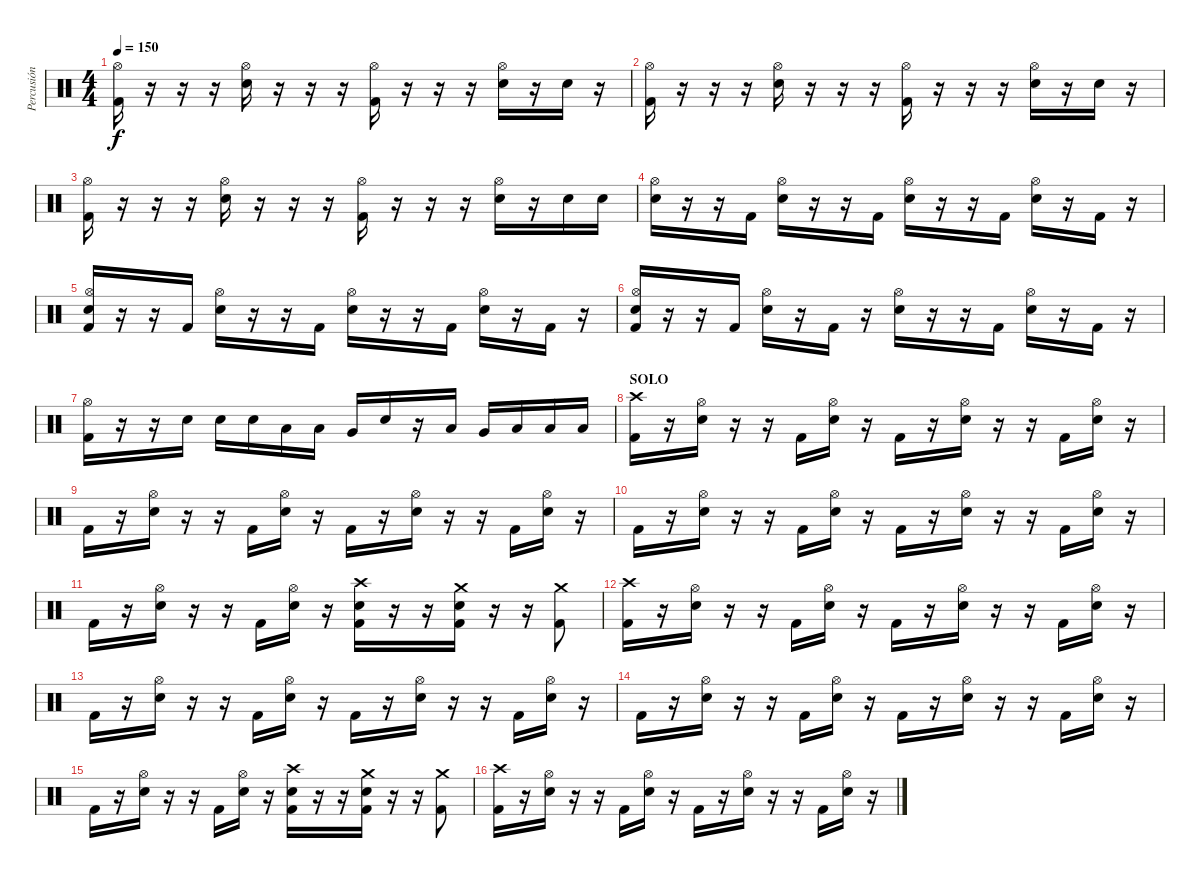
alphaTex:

\track ("Percusión" "Percusión") {instrument percussion}
\staff {score}
\articulation defaults
\ts (4 4)
\tempo 150
\clef neutral
\ks c
("Kick (hit) 2" "Hi-Hat (open)").16{dy f} r.16 r.16 r.16 ("Electric Snare (hit)" "Hi-Hat (open)").16 r.16 r.16 r.16 ("Kick (hit) 2" "Hi-Hat (open)").16 r.16 r.16 r.16 ("Electric Snare (hit)" "Hi-Hat (open)").16 r.16 "Electric Snare (hit)".16 r.16 |
("Kick (hit) 2" "Hi-Hat (open)").16 r.16 r.16 r.16 ("Electric Snare (hit)" "Hi-Hat (open)").16 r.16 r.16 r.16 ("Kick (hit) 2" "Hi-Hat (open)").16 r.16 r.16 r.16 ("Electric Snare (hit)" "Hi-Hat (open)").16 r.16 "Electric Snare (hit)".16 r.16 |
("Kick (hit) 2" "Hi-Hat (open)").16 r.16 r.16 r.16 ("Electric Snare (hit)" "Hi-Hat (open)").16 r.16 r.16 r.16 ("Kick (hit) 2" "Hi-Hat (open)").16 r.16 r.16 r.16 ("Electric Snare (hit)" "Hi-Hat (open)").16 r.16 "Electric Snare (hit)".16 "Electric Snare (hit)".16 |
("Electric Snare (hit)" "Hi-Hat (open)").16 r.16 r.16 "Kick (hit) 2".16 ("Electric Snare (hit)" "Hi-Hat (open)").16 r.16 r.16 "Kick (hit) 2".16 ("Electric Snare (hit)" "Hi-Hat (open)").16 r.16 r.16 "Kick (hit) 2".16 ("Electric Snare (hit)" "Hi-Hat (open)").16 r.16 "Kick (hit) 2".16 r.16 |
("Kick (hit) 2" "Electric Snare (hit)" "Hi-Hat (open)").16 r.16 r.16 "Kick (hit) 2".16 ("Electric Snare (hit)" "Hi-Hat (open)").16 r.16 r.16 "Kick (hit) 2".16 ("Electric Snare (hit)" "Hi-Hat (open)").16 r.16 r.16 "Kick (hit) 2".16 ("Electric Snare (hit)" "Hi-Hat (open)").16 r.16 "Kick (hit) 2".16 r.16 |
("Kick (hit) 2" "Electric Snare (hit)" "Hi-Hat (open)").16 r.16 r.16 "Kick (hit) 2".16 ("Electric Snare (hit)" "Hi-Hat (open)").16 r.16 "Kick (hit) 2".16 r.16 ("Electric Snare (hit)" "Hi-Hat (open)").16 r.16 r.16 "Kick (hit) 2".16 ("Electric Snare (hit)" "Hi-Hat (open)").16 r.16 "Kick (hit) 2".16 r.16 |
("Kick (hit) 2" "Hi-Hat (open)").16 r.16 r.16 "Electric Snare (hit)".16 "Electric Snare (hit)".16 "Electric Snare (hit)".16 "Low Tom (hit)".16 "Low Tom (hit)".16 "Very Low Tom (hit)".16 "Electric Snare (hit)".16 r.16 "Low Tom (hit)".16 "Very Low Tom (hit)".16 "Low Tom (hit)".16 "Low Tom (hit)".16 "Low Tom (hit)".16 |
\section ("" "SOLO")
("Kick (hit) 2" "Crash high (hit)").16 r.16 ("Electric Snare (hit)" "Hi-Hat (open)").16 r.16 r.16 "Kick (hit) 2".16 ("Electric Snare (hit)" "Hi-Hat (open)").16 r.16 "Kick (hit) 2".16 r.16 ("Electric Snare (hit)" "Hi-Hat (open)").16 r.16 r.16 "Kick (hit) 2".16 ("Electric Snare (hit)" "Hi-Hat (open)").16 r.16 |
"Kick (hit) 2".16 r.16 ("Electric Snare (hit)" "Hi-Hat (open)").16 r.16 r.16 "Kick (hit) 2".16 ("Electric Snare (hit)" "Hi-Hat (open)").16 r.16 "Kick (hit) 2".16 r.16 ("Electric Snare (hit)" "Hi-Hat (open)").16 r.16 r.16 "Kick (hit) 2".16 ("Electric Snare (hit)" "Hi-Hat (open)").16 r.16 |
"Kick (hit) 2".16 r.16 ("Electric Snare (hit)" "Hi-Hat (open)").16 r.16 r.16 "Kick (hit) 2".16 ("Electric Snare (hit)" "Hi-Hat (open)").16 r.16 "Kick (hit) 2".16 r.16 ("Electric Snare (hit)" "Hi-Hat (open)").16 r.16 r.16 "Kick (hit) 2".16 ("Electric Snare (hit)" "Hi-Hat (open)").16 r.16 |
"Kick (hit) 2".16 r.16 ("Electric Snare (hit)" "Hi-Hat (open)").16 r.16 r.16 "Kick (hit) 2".16 ("Electric Snare (hit)" "Hi-Hat (open)").16 r.16 ("Kick (hit) 2" "Electric Snare (hit)" "Crash high (hit)").16 r.16 r.16 ("Kick (hit) 2" "Electric Snare (hit)" "Crash medium (hit)").16 r.16 r.16 ("Kick (hit) 2" "Crash medium (hit)").8 |
("Kick (hit) 2" "Crash high (hit)").16 r.16 ("Electric Snare (hit)" "Hi-Hat (open)").16 r.16 r.16 "Kick (hit) 2".16 ("Electric Snare (hit)" "Hi-Hat (open)").16 r.16 "Kick (hit) 2".16 r.16 ("Electric Snare (hit)" "Hi-Hat (open)").16 r.16 r.16 "Kick (hit) 2".16 ("Electric Snare (hit)" "Hi-Hat (open)").16 r.16 |
"Kick (hit) 2".16 r.16 ("Electric Snare (hit)" "Hi-Hat (open)").16 r.16 r.16 "Kick (hit) 2".16 ("Electric Snare (hit)" "Hi-Hat (open)").16 r.16 "Kick (hit) 2".16 r.16 ("Electric Snare (hit)" "Hi-Hat (open)").16 r.16 r.16 "Kick (hit) 2".16 ("Electric Snare (hit)" "Hi-Hat (open)").16 r.16 |
"Kick (hit) 2".16 r.16 ("Electric Snare (hit)" "Hi-Hat (open)").16 r.16 r.16 "Kick (hit) 2".16 ("Electric Snare (hit)" "Hi-Hat (open)").16 r.16 "Kick (hit) 2".16 r.16 ("Electric Snare (hit)" "Hi-Hat (open)").16 r.16 r.16 "Kick (hit) 2".16 ("Electric Snare (hit)" "Hi-Hat (open)").16 r.16 |
"Kick (hit) 2".16 r.16 ("Electric Snare (hit)" "Hi-Hat (open)").16 r.16 r.16 "Kick (hit) 2".16 ("Electric Snare (hit)" "Hi-Hat (open)").16 r.16 ("Kick (hit) 2" "Electric Snare (hit)" "Crash high (hit)").16 r.16 r.16 ("Kick (hit) 2" "Electric Snare (hit)" "Crash medium (hit)").16 r.16 r.16 ("Kick (hit) 2" "Crash medium (hit)").8 |
("Kick (hit) 2" "Crash high (hit)").16 r.16 ("Electric Snare (hit)" "Hi-Hat (open)").16 r.16 r.16 "Kick (hit) 2".16 ("Electric Snare (hit)" "Hi-Hat (open)").16 r.16 "Kick (hit) 2".16 r.16 ("Electric Snare (hit)" "Hi-Hat (open)").16 r.16 r.16 "Kick (hit) 2".16 ("Electric Snare (hit)" "Hi-Hat (open)").16 r.16
